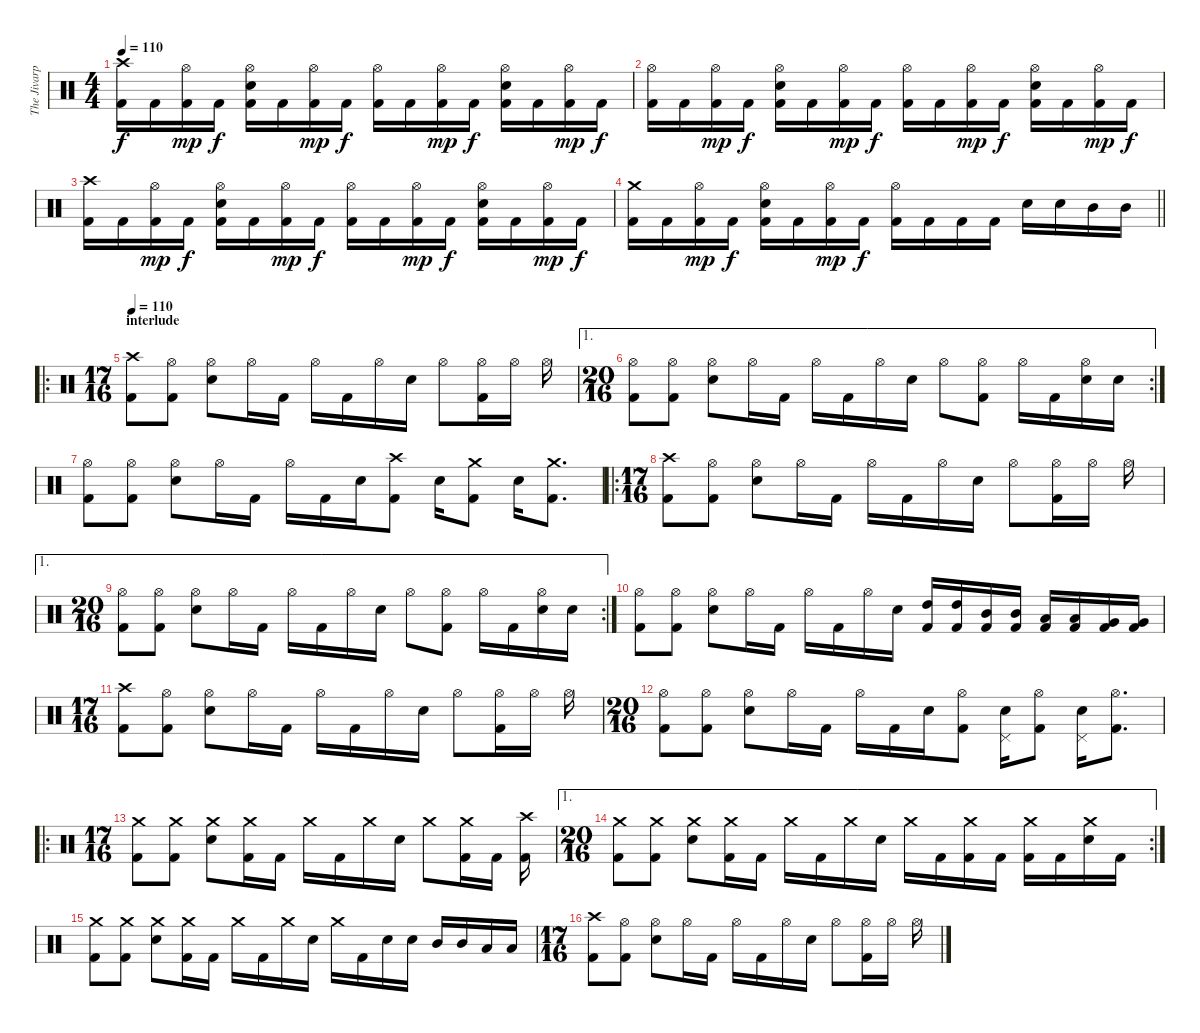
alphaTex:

\track ("The Jivarp" "The Jivarp") {instrument percussion}
\staff {score}
\articulation defaults
\ts (4 4)
\tempo 110
\clef neutral
\ks c
("Crash high (hit)" "Kick (hit) 2").16{dy f} "Kick (hit) 2".16 ("Hi-Hat (open)" "Kick (hit) 2").16{dy mp} "Kick (hit) 2".16{dy f} ("Hi-Hat (open)" "Electric Snare (hit)" "Kick (hit) 2").16 "Kick (hit) 2".16 ("Hi-Hat (open)" "Kick (hit) 2").16{dy mp} "Kick (hit) 2".16{dy f} ("Hi-Hat (open)" "Kick (hit) 2").16 "Kick (hit) 2".16 ("Hi-Hat (open)" "Kick (hit) 2").16{dy mp} "Kick (hit) 2".16{dy f} ("Hi-Hat (open)" "Electric Snare (hit)" "Kick (hit) 2").16 "Kick (hit) 2".16 ("Hi-Hat (open)" "Kick (hit) 2").16{dy mp} "Kick (hit) 2".16{dy f} |
("Hi-Hat (open)" "Kick (hit) 2").16 "Kick (hit) 2".16 ("Hi-Hat (open)" "Kick (hit) 2").16{dy mp} "Kick (hit) 2".16{dy f} ("Hi-Hat (open)" "Electric Snare (hit)" "Kick (hit) 2").16 "Kick (hit) 2".16 ("Hi-Hat (open)" "Kick (hit) 2").16{dy mp} "Kick (hit) 2".16{dy f} ("Hi-Hat (open)" "Kick (hit) 2").16 "Kick (hit) 2".16 ("Hi-Hat (open)" "Kick (hit) 2").16{dy mp} "Kick (hit) 2".16{dy f} ("Hi-Hat (open)" "Electric Snare (hit)" "Kick (hit) 2").16 "Kick (hit) 2".16 ("Hi-Hat (open)" "Kick (hit) 2").16{dy mp} "Kick (hit) 2".16{dy f} |
("Crash high (hit)" "Kick (hit) 2").16 "Kick (hit) 2".16 ("Hi-Hat (open)" "Kick (hit) 2").16{dy mp} "Kick (hit) 2".16{dy f} ("Hi-Hat (open)" "Electric Snare (hit)" "Kick (hit) 2").16 "Kick (hit) 2".16 ("Hi-Hat (open)" "Kick (hit) 2").16{dy mp} "Kick (hit) 2".16{dy f} ("Hi-Hat (open)" "Kick (hit) 2").16 "Kick (hit) 2".16 ("Hi-Hat (open)" "Kick (hit) 2").16{dy mp} "Kick (hit) 2".16{dy f} ("Hi-Hat (open)" "Electric Snare (hit)" "Kick (hit) 2").16 "Kick (hit) 2".16 ("Hi-Hat (open)" "Kick (hit) 2").16{dy mp} "Kick (hit) 2".16{dy f} |
\barLineRight lightlight
("Crash medium (hit)" "Kick (hit) 2").16 "Kick (hit) 2".16 ("Hi-Hat (open)" "Kick (hit) 2").16{dy mp} "Kick (hit) 2".16{dy f} ("Hi-Hat (open)" "Electric Snare (hit)" "Kick (hit) 2").16 "Kick (hit) 2".16 ("Hi-Hat (open)" "Kick (hit) 2").16{dy mp} "Kick (hit) 2".16{dy f} ("Hi-Hat (open)" "Kick (hit) 2").16 "Kick (hit) 2".16 "Kick (hit) 2".16 "Kick (hit) 2".16 "Electric Snare (hit)".16 "Electric Snare (hit)".16 "Mid Tom (hit)".16 "Mid Tom (hit)".16 |
\ro
\ts (17 16)
\section ("" "interlude")
\tempo 110
("Crash high (hit)" "Kick (hit) 2").8 ("Hi-Hat (open)" "Kick (hit) 2").8 ("Hi-Hat (open)" "Electric Snare (hit)").8 "Hi-Hat (open)".16 "Kick (hit) 2".16 "Hi-Hat (open)".16 "Kick (hit) 2".16 "Hi-Hat (open)".16 "Electric Snare (hit)".16 "Hi-Hat (open)".8 ("Hi-Hat (open)" "Kick (hit) 2").16 "Hi-Hat (open)".16 "Hi-Hat (open)".16 |
\ae 1
\rc 2
\ts (20 16)
("Hi-Hat (open)" "Kick (hit) 2").8 ("Hi-Hat (open)" "Kick (hit) 2").8 ("Hi-Hat (open)" "Electric Snare (hit)").8 "Hi-Hat (open)".16 "Kick (hit) 2".16 "Hi-Hat (open)".16 "Kick (hit) 2".16 "Hi-Hat (open)".16 "Electric Snare (hit)".16 "Hi-Hat (open)".8 ("Hi-Hat (open)" "Kick (hit) 2").8 "Hi-Hat (open)".16 "Kick (hit) 2".16 ("Hi-Hat (open)" "Electric Snare (hit)").16 "Electric Snare (hit)".16 |
("Hi-Hat (open)" "Kick (hit) 2").8 ("Hi-Hat (open)" "Kick (hit) 2").8 ("Hi-Hat (open)" "Electric Snare (hit)").8 "Hi-Hat (open)".16 "Kick (hit) 2".16 "Hi-Hat (open)".16 "Kick (hit) 2".16 "Electric Snare (hit)".16 ("Crash high (hit)" "Kick (hit) 2").8 "Electric Snare (hit)".16 ("Crash medium (hit)" "Kick (hit) 2").8 "Electric Snare (hit)".16 ("Crash medium (hit)" "Kick (hit) 2").8{d} |
\ro
\ts (17 16)
("Crash high (hit)" "Kick (hit) 2").8 ("Hi-Hat (open)" "Kick (hit) 2").8 ("Hi-Hat (open)" "Electric Snare (hit)").8 "Hi-Hat (open)".16 "Kick (hit) 2".16 "Hi-Hat (open)".16 "Kick (hit) 2".16 "Hi-Hat (open)".16 "Electric Snare (hit)".16 "Hi-Hat (open)".8 ("Hi-Hat (open)" "Kick (hit) 2").16 "Hi-Hat (open)".16 "Hi-Hat (open)".16 |
\ae 1
\rc 2
\ts (20 16)
("Hi-Hat (open)" "Kick (hit) 2").8 ("Hi-Hat (open)" "Kick (hit) 2").8 ("Hi-Hat (open)" "Electric Snare (hit)").8 "Hi-Hat (open)".16 "Kick (hit) 2".16 "Hi-Hat (open)".16 "Kick (hit) 2".16 "Hi-Hat (open)".16 "Electric Snare (hit)".16 "Hi-Hat (open)".8 ("Hi-Hat (open)" "Kick (hit) 2").8 "Hi-Hat (open)".16 "Kick (hit) 2".16 ("Hi-Hat (open)" "Electric Snare (hit)").16 "Electric Snare (hit)".16 |
("Hi-Hat (open)" "Kick (hit) 2").8 ("Hi-Hat (open)" "Kick (hit) 2").8 ("Hi-Hat (open)" "Electric Snare (hit)").8 "Hi-Hat (open)".16 "Kick (hit) 2".16 "Hi-Hat (open)".16 "Kick (hit) 2".16 "Hi-Hat (open)".16 "Electric Snare (hit)".16 ("High Tom (hit)" "Kick (hit) 2").16 ("High Tom (hit)" "Kick (hit) 2").16 ("Mid Tom (hit)" "Kick (hit) 2").16 ("Mid Tom (hit)" "Kick (hit) 2").16 ("Low Tom (hit)" "Kick (hit) 2").16 ("Low Tom (hit)" "Kick (hit) 2").16 ("Very Low Tom (hit)" "Kick (hit) 2").16 ("Very Low Tom (hit)" "Kick (hit) 2").16 |
\ts (17 16)
("Crash high (hit)" "Kick (hit) 2").8 ("Hi-Hat (open)" "Kick (hit) 2").8 ("Hi-Hat (open)" "Electric Snare (hit)").8 "Hi-Hat (open)".16 "Kick (hit) 2".16 "Hi-Hat (open)".16 "Kick (hit) 2".16 "Hi-Hat (open)".16 "Electric Snare (hit)".16 "Hi-Hat (open)".8 ("Hi-Hat (open)" "Kick (hit) 2").16 "Hi-Hat (open)".16 "Hi-Hat (open)".16 |
\ts (20 16)
("Hi-Hat (open)" "Kick (hit) 2").8 ("Hi-Hat (open)" "Kick (hit) 2").8 ("Hi-Hat (open)" "Electric Snare (hit)").8 "Hi-Hat (open)".16 "Kick (hit) 2".16 "Hi-Hat (open)".16 "Kick (hit) 2".16 "Electric Snare (hit)".16 ("Hi-Hat (open)" "Kick (hit) 2").8 ("Pedal Hi-Hat (hit)" "Electric Snare (hit)").16 ("Hi-Hat (open)" "Kick (hit) 2").8 ("Pedal Hi-Hat (hit)" "Electric Snare (hit)").16 ("Hi-Hat (open)" "Kick (hit) 2").8{d} |
\ro
\ts (17 16)
("Crash medium (hit)" "Kick (hit) 2").8 ("Crash medium (hit)" "Kick (hit) 2").8 ("Crash medium (hit)" "Electric Snare (hit)").8 ("Crash medium (hit)" "Kick (hit) 2").16 "Kick (hit) 2".16 "Crash medium (hit)".16 "Kick (hit) 2".16 "Crash medium (hit)".16 "Electric Snare (hit)".16 "Crash medium (hit)".8 ("Crash medium (hit)" "Kick (hit) 2").16 "Kick (hit) 2".16 ("Crash high (hit)" "Kick (hit) 2").16 |
\ae 1
\rc 2
\ts (20 16)
("Crash medium (hit)" "Kick (hit) 2").8 ("Crash medium (hit)" "Kick (hit) 2").8 ("Crash medium (hit)" "Electric Snare (hit)").8 ("Crash medium (hit)" "Kick (hit) 2").16 "Kick (hit) 2".16 "Crash medium (hit)".16 "Kick (hit) 2".16 "Crash medium (hit)".16 "Electric Snare (hit)".16 "Crash medium (hit)".16 "Kick (hit) 2".16 ("Crash medium (hit)" "Kick (hit) 2").16 "Kick (hit) 2".16 ("Crash medium (hit)" "Kick (hit) 2").16 "Kick (hit) 2".16 ("Crash medium (hit)" "Electric Snare (hit)").16 "Kick (hit) 2".16 |
("Crash medium (hit)" "Kick (hit) 2").8 ("Crash medium (hit)" "Kick (hit) 2").8 ("Crash medium (hit)" "Electric Snare (hit)").8 ("Crash medium (hit)" "Kick (hit) 2").16 "Kick (hit) 2".16 "Crash medium (hit)".16 "Kick (hit) 2".16 "Crash medium (hit)".16 "Electric Snare (hit)".16 "Crash medium (hit)".16 "Kick (hit) 2".16 "Electric Snare (hit)".16 "Electric Snare (hit)".16 "Mid Tom (hit)".16 "Mid Tom (hit)".16 "Low Tom (hit)".16 "Low Tom (hit)".16 |
\ts (17 16)
("Crash high (hit)" "Kick (hit) 2").8 ("Hi-Hat (open)" "Kick (hit) 2").8 ("Hi-Hat (open)" "Electric Snare (hit)").8 "Hi-Hat (open)".16 "Kick (hit) 2".16 "Hi-Hat (open)".16 "Kick (hit) 2".16 "Hi-Hat (open)".16 "Electric Snare (hit)".16 "Hi-Hat (open)".8 ("Hi-Hat (open)" "Kick (hit) 2").16 "Hi-Hat (open)".16 "Hi-Hat (open)".16
